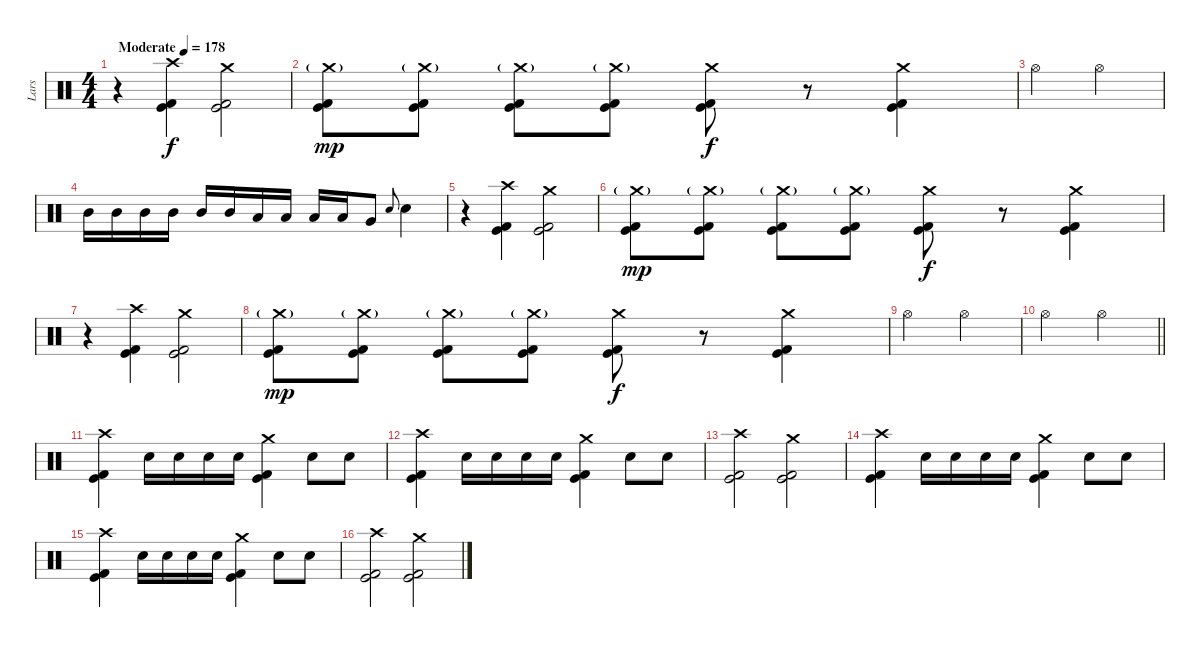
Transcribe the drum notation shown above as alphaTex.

\track ("Lars" "Lars") {instrument percussion}
\staff {score}
\articulation defaults
\ts (4 4)
\tempo (178 "Moderate")
\clef neutral
\ks c
r.4{dy f} ("Crash high (hit)" "Kick (hit)" "Kick (hit) 2").4 ("Crash medium (hit)" "Kick (hit)" "Kick (hit) 2").2 |
("Crash medium (hit)"{g} "Kick (hit)" "Kick (hit) 2").8{dy mp} ("Crash medium (hit)"{g} "Kick (hit)" "Kick (hit) 2").8 ("Crash medium (hit)"{g} "Kick (hit)" "Kick (hit) 2").8 ("Crash medium (hit)"{g} "Kick (hit)" "Kick (hit) 2").8 ("Crash medium (hit)" "Kick (hit)" "Kick (hit) 2").8{dy f} r.8 ("Crash medium (hit)" "Kick (hit)" "Kick (hit) 2").4 |
"Hi-Hat (open)".2 "Hi-Hat (open)".2 |
"Mid Tom (hit)".16 "Mid Tom (hit)".16 "Mid Tom (hit)".16 "Mid Tom (hit)".16 "Mid Tom (hit)".16 "Mid Tom (hit)".16 "Low Tom (hit)".16 "Low Tom (hit)".16 "Low Tom (hit)".16 "Low Tom (hit)".16 "Very Low Tom (hit)".8 "Electric Snare (hit)".8{gr onbeat} "Electric Snare (hit)".4 |
r.4 ("Crash high (hit)" "Kick (hit)" "Kick (hit) 2").4 ("Crash medium (hit)" "Kick (hit)" "Kick (hit) 2").2 |
("Crash medium (hit)"{g} "Kick (hit)" "Kick (hit) 2").8{dy mp} ("Crash medium (hit)"{g} "Kick (hit)" "Kick (hit) 2").8 ("Crash medium (hit)"{g} "Kick (hit)" "Kick (hit) 2").8 ("Crash medium (hit)"{g} "Kick (hit)" "Kick (hit) 2").8 ("Crash medium (hit)" "Kick (hit)" "Kick (hit) 2").8{dy f} r.8 ("Crash medium (hit)" "Kick (hit)" "Kick (hit) 2").4 |
r.4 ("Crash high (hit)" "Kick (hit)" "Kick (hit) 2").4 ("Crash medium (hit)" "Kick (hit)" "Kick (hit) 2").2 |
("Crash medium (hit)"{g} "Kick (hit)" "Kick (hit) 2").8{dy mp} ("Crash medium (hit)"{g} "Kick (hit)" "Kick (hit) 2").8 ("Crash medium (hit)"{g} "Kick (hit)" "Kick (hit) 2").8 ("Crash medium (hit)"{g} "Kick (hit)" "Kick (hit) 2").8 ("Crash medium (hit)" "Kick (hit)" "Kick (hit) 2").8{dy f} r.8 ("Crash medium (hit)" "Kick (hit)" "Kick (hit) 2").4 |
"Hi-Hat (open)".2 "Hi-Hat (open)".2 |
\barLineRight lightlight "Hi-Hat (open)".2 "Hi-Hat (open)".2
|
\section ("" "")
("Crash high (hit)" "Kick (hit)" "Kick (hit) 2").4 "Electric Snare (hit)".16 "Electric Snare (hit)".16 "Electric Snare (hit)".16 "Electric Snare (hit)".16 ("Crash medium (hit)" "Kick (hit)" "Kick (hit) 2").4 "Electric Snare (hit)".8 "Electric Snare (hit)".8 |
("Crash high (hit)" "Kick (hit)" "Kick (hit) 2").4 "Electric Snare (hit)".16 "Electric Snare (hit)".16 "Electric Snare (hit)".16 "Electric Snare (hit)".16 ("Crash medium (hit)" "Kick (hit)" "Kick (hit) 2").4 "Electric Snare (hit)".8 "Electric Snare (hit)".8 |
("Crash high (hit)" "Kick (hit)" "Kick (hit) 2").2 ("Crash medium (hit)" "Kick (hit)" "Kick (hit) 2").2 |
("Crash high (hit)" "Kick (hit)" "Kick (hit) 2").4 "Electric Snare (hit)".16 "Electric Snare (hit)".16 "Electric Snare (hit)".16 "Electric Snare (hit)".16 ("Crash medium (hit)" "Kick (hit)" "Kick (hit) 2").4 "Electric Snare (hit)".8 "Electric Snare (hit)".8 |
("Crash high (hit)" "Kick (hit)" "Kick (hit) 2").4 "Electric Snare (hit)".16 "Electric Snare (hit)".16 "Electric Snare (hit)".16 "Electric Snare (hit)".16 ("Crash medium (hit)" "Kick (hit)" "Kick (hit) 2").4 "Electric Snare (hit)".8 "Electric Snare (hit)".8 |
("Crash high (hit)" "Kick (hit)" "Kick (hit) 2").2 ("Crash medium (hit)" "Kick (hit)" "Kick (hit) 2").2
